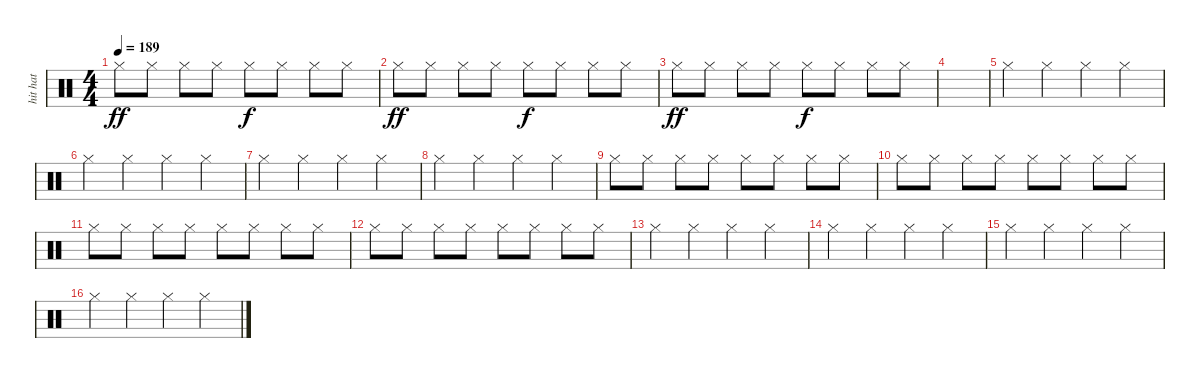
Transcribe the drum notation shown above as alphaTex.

\track ("hit hat" "hit hat") {instrument percussion}
\staff {score}
\articulation defaults
\ts (4 4)
\tempo 189
\clef neutral
\ks c "Hi-Hat (closed)".8{dy ff} "Hi-Hat (closed)".8 "Hi-Hat (closed)".8 "Hi-Hat (closed)".8 "Hi-Hat (closed)".8{dy f} "Hi-Hat (closed)".8 "Hi-Hat (closed)".8 "Hi-Hat (closed)".8
|
"Hi-Hat (closed)".8{dy ff} "Hi-Hat (closed)".8 "Hi-Hat (closed)".8 "Hi-Hat (closed)".8 "Hi-Hat (closed)".8{dy f} "Hi-Hat (closed)".8 "Hi-Hat (closed)".8 "Hi-Hat (closed)".8 |
"Hi-Hat (closed)".8{dy ff} "Hi-Hat (closed)".8 "Hi-Hat (closed)".8 "Hi-Hat (closed)".8 "Hi-Hat (closed)".8{dy f} "Hi-Hat (closed)".8 "Hi-Hat (closed)".8 "Hi-Hat (closed)".8 |
|
"Hi-Hat (closed)".4 "Hi-Hat (closed)".4 "Hi-Hat (closed)".4 "Hi-Hat (closed)".4 |
"Hi-Hat (closed)".4 "Hi-Hat (closed)".4 "Hi-Hat (closed)".4 "Hi-Hat (closed)".4 |
"Hi-Hat (closed)".4 "Hi-Hat (closed)".4 "Hi-Hat (closed)".4 "Hi-Hat (closed)".4 |
"Hi-Hat (closed)".4 "Hi-Hat (closed)".4 "Hi-Hat (closed)".4 "Hi-Hat (closed)".4 |
"Hi-Hat (closed)".8 "Hi-Hat (closed)".8 "Hi-Hat (closed)".8 "Hi-Hat (closed)".8 "Hi-Hat (closed)".8 "Hi-Hat (closed)".8 "Hi-Hat (closed)".8 "Hi-Hat (closed)".8 |
"Hi-Hat (closed)".8 "Hi-Hat (closed)".8 "Hi-Hat (closed)".8 "Hi-Hat (closed)".8 "Hi-Hat (closed)".8 "Hi-Hat (closed)".8 "Hi-Hat (closed)".8 "Hi-Hat (closed)".8 |
"Hi-Hat (closed)".8 "Hi-Hat (closed)".8 "Hi-Hat (closed)".8 "Hi-Hat (closed)".8 "Hi-Hat (closed)".8 "Hi-Hat (closed)".8 "Hi-Hat (closed)".8 "Hi-Hat (closed)".8 |
"Hi-Hat (closed)".8 "Hi-Hat (closed)".8 "Hi-Hat (closed)".8 "Hi-Hat (closed)".8 "Hi-Hat (closed)".8 "Hi-Hat (closed)".8 "Hi-Hat (closed)".8 "Hi-Hat (closed)".8 |
"Hi-Hat (closed)".4 "Hi-Hat (closed)".4 "Hi-Hat (closed)".4 "Hi-Hat (closed)".4 |
"Hi-Hat (closed)".4 "Hi-Hat (closed)".4 "Hi-Hat (closed)".4 "Hi-Hat (closed)".4 |
"Hi-Hat (closed)".4 "Hi-Hat (closed)".4 "Hi-Hat (closed)".4 "Hi-Hat (closed)".4 |
"Hi-Hat (closed)".4 "Hi-Hat (closed)".4 "Hi-Hat (closed)".4 "Hi-Hat (closed)".4
